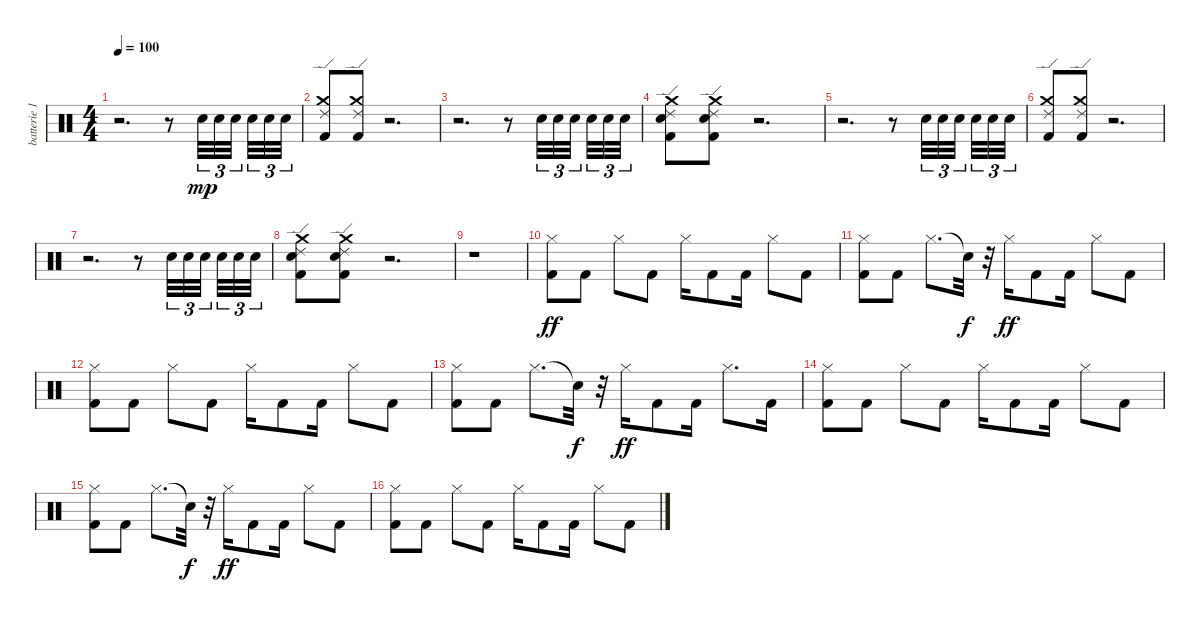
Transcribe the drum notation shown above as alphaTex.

\track ("batterie 1" "batterie 1") {instrument percussion}
\staff {score}
\articulation defaults
\ts (4 4)
\tempo 100
\clef neutral
\ks c
r.2{d dy mp} r.8 "Snare (hit) 2".32{tu (3 2)} "Electric Snare (hit)".32{tu (3 2)} "Snare (hit) 2".32{tu (3 2)} "Electric Snare (hit)".32{tu (3 2)} "Snare (hit) 2".32{tu (3 2)} "Electric Snare (hit)".32{tu (3 2)} |
("Kick (hit) 2" "Crash medium (hit)" "Ride (edge) 2").8 ("Kick (hit) 2" "Crash medium (hit)" "Ride (edge) 2").8 r.2{d} |
r.2{d} r.8 "Snare (hit) 2".32{tu (3 2)} "Electric Snare (hit)".32{tu (3 2)} "Snare (hit) 2".32{tu (3 2)} "Electric Snare (hit)".32{tu (3 2)} "Snare (hit) 2".32{tu (3 2)} "Electric Snare (hit)".32{tu (3 2)} |
("Kick (hit) 2" "Electric Snare (hit)" "Crash medium (hit)" "Ride (edge) 2").8 ("Kick (hit) 2" "Electric Snare (hit)" "Crash medium (hit)" "Ride (edge) 2").8 r.2{d} |
r.2{d} r.8 "Snare (hit) 2".32{tu (3 2)} "Electric Snare (hit)".32{tu (3 2)} "Snare (hit) 2".32{tu (3 2)} "Electric Snare (hit)".32{tu (3 2)} "Snare (hit) 2".32{tu (3 2)} "Electric Snare (hit)".32{tu (3 2)} |
("Kick (hit) 2" "Crash medium (hit)" "Ride (edge) 2").8 ("Kick (hit) 2" "Crash medium (hit)" "Ride (edge) 2").8 r.2{d} |
r.2{d} r.8 "Snare (hit) 2".32{tu (3 2)} "Electric Snare (hit)".32{tu (3 2)} "Snare (hit) 2".32{tu (3 2)} "Electric Snare (hit)".32{tu (3 2)} "Snare (hit) 2".32{tu (3 2)} "Electric Snare (hit)".32{tu (3 2)} |
("Kick (hit) 2" "Electric Snare (hit)" "Crash medium (hit)" "Ride (edge) 2").8 ("Kick (hit) 2" "Electric Snare (hit)" "Crash medium (hit)" "Ride (edge) 2").8 r.2{d} |
r.1 |
("Kick (hit) 2" "Hi-Hat (closed)").8{dy ff} "Kick (hit) 2".8 "Hi-Hat (closed)".8 "Kick (hit) 2".8 "Hi-Hat (closed)".16 "Kick (hit) 2".8 "Kick (hit) 2".16 "Hi-Hat (closed)".8 "Kick (hit) 2".8 |
("Kick (hit) 2" "Hi-Hat (closed)").8 "Kick (hit) 2".8 "Hi-Hat (closed)".8{d} "Snare (hit)"{t}.32{dy f} r.32 "Hi-Hat (closed)".16{dy ff} "Kick (hit) 2".8 "Kick (hit) 2".16 "Hi-Hat (closed)".8 "Kick (hit) 2".8 |
("Kick (hit) 2" "Hi-Hat (closed)").8 "Kick (hit) 2".8 "Hi-Hat (closed)".8 "Kick (hit) 2".8 "Hi-Hat (closed)".16 "Kick (hit) 2".8 "Kick (hit) 2".16 "Hi-Hat (closed)".8 "Kick (hit) 2".8 |
("Kick (hit) 2" "Hi-Hat (closed)").8 "Kick (hit) 2".8 "Hi-Hat (closed)".8{d} "Snare (hit)"{t}.32{dy f} r.32 "Hi-Hat (closed)".16{dy ff} "Kick (hit) 2".8 "Kick (hit) 2".16 "Hi-Hat (closed)".8{d} "Kick (hit) 2".16 |
("Kick (hit) 2" "Hi-Hat (closed)").8 "Kick (hit) 2".8 "Hi-Hat (closed)".8 "Kick (hit) 2".8 "Hi-Hat (closed)".16 "Kick (hit) 2".8 "Kick (hit) 2".16 "Hi-Hat (closed)".8 "Kick (hit) 2".8 |
("Kick (hit) 2" "Hi-Hat (closed)").8 "Kick (hit) 2".8 "Hi-Hat (closed)".8{d} "Snare (hit)"{t}.32{dy f} r.32 "Hi-Hat (closed)".16{dy ff} "Kick (hit) 2".8 "Kick (hit) 2".16 "Hi-Hat (closed)".8 "Kick (hit) 2".8 |
("Kick (hit) 2" "Hi-Hat (closed)").8 "Kick (hit) 2".8 "Hi-Hat (closed)".8 "Kick (hit) 2".8 "Hi-Hat (closed)".16 "Kick (hit) 2".8 "Kick (hit) 2".16 "Hi-Hat (closed)".8 "Kick (hit) 2".8
